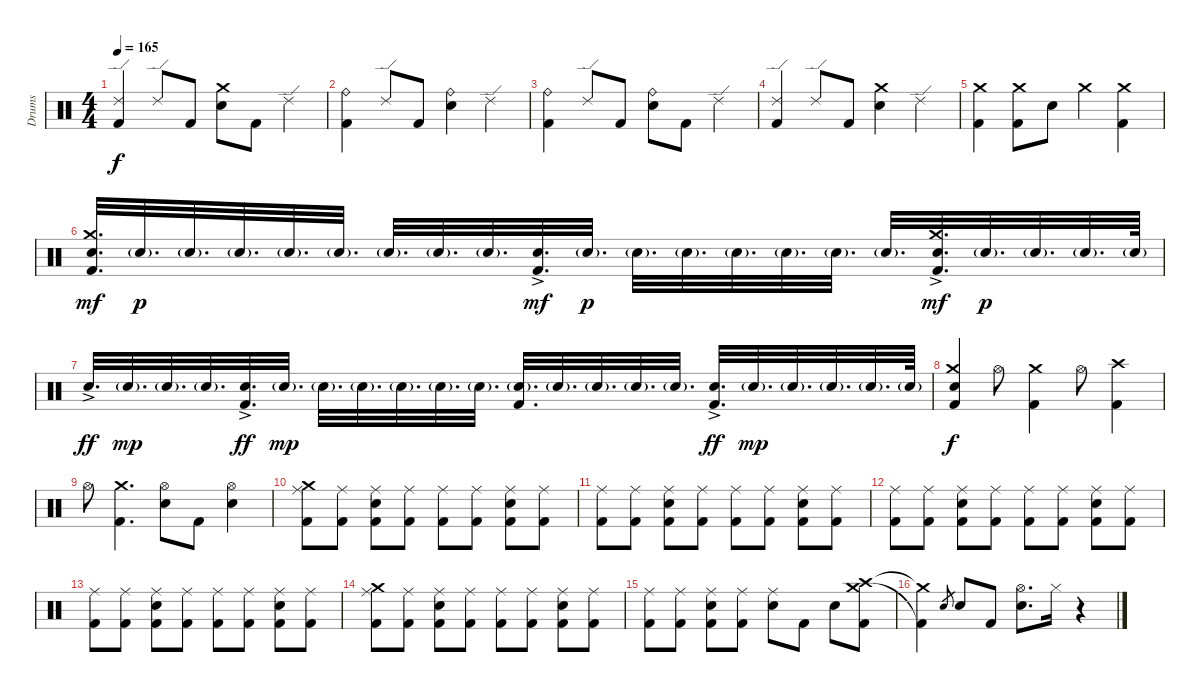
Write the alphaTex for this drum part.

\track ("Drums" "Drums") {instrument percussion}
\staff {score}
\articulation defaults
\ts (4 4)
\tempo 165
\clef neutral
\ks c
("Ride (edge) 2" "Kick (hit) 2").4{dy f} "Ride (edge) 2".8 "Kick (hit) 2".8 ("Crash medium (hit)" "Electric Snare (hit)").8 "Kick (hit) 2".8 "Ride (edge) 2".4 |
("Ride (bell)" "Kick (hit) 2").4 "Ride (edge) 2".8 "Kick (hit) 2".8 ("Ride (bell)" "Electric Snare (hit)").4 "Ride (edge) 2".4 |
("Ride (bell)" "Kick (hit) 2").4 "Ride (edge) 2".8 "Kick (hit) 2".8 ("Ride (bell)" "Electric Snare (hit)").8 "Kick (hit) 2".8 "Ride (edge) 2".4 |
("Ride (edge) 2" "Kick (hit) 2").4 "Ride (edge) 2".8 "Kick (hit) 2".8 ("Crash medium (hit)" "Electric Snare (hit)").4 "Ride (edge) 2".4 |
("Crash medium (hit)" "Kick (hit) 2").4 ("Crash medium (hit)" "Kick (hit) 2").8 "Electric Snare (hit)".8 "Crash medium (hit)".4 ("Crash medium (hit)" "Kick (hit) 2").4 |
("Crash medium (hit)" "Electric Snare (hit)" "Kick (hit) 2").32{d dy mf} "Electric Snare (hit)"{g}.32{d dy p} "Electric Snare (hit)"{g}.32{d} "Electric Snare (hit)"{g}.32{d} "Electric Snare (hit)"{g}.32{d} "Electric Snare (hit)"{g}.32{d} "Electric Snare (hit)"{g}.32{d} "Electric Snare (hit)"{g}.32{d} "Electric Snare (hit)"{g}.32{d} ("Electric Snare (hit)"{ac} "Kick (hit) 2").32{d dy mf} "Electric Snare (hit)"{g}.32{d dy p} "Electric Snare (hit)"{g}.32{d} "Electric Snare (hit)"{g}.32{d} "Electric Snare (hit)"{g}.32{d} "Electric Snare (hit)"{g}.32{d} "Electric Snare (hit)"{g}.32{d} "Electric Snare (hit)"{g}.32{d} ("Crash medium (hit)" "Electric Snare (hit)"{ac} "Kick (hit) 2").32{d dy mf} "Electric Snare (hit)"{g}.32{d dy p} "Electric Snare (hit)"{g}.32{d} "Electric Snare (hit)"{g}.32{d} "Electric Snare (hit)"{g}.64 |
"Electric Snare (hit)"{ac}.32{d dy ff} "Electric Snare (hit)"{g}.32{d dy mp} "Electric Snare (hit)"{g}.32{d} "Electric Snare (hit)"{g}.32{d} ("Electric Snare (hit)"{ac} "Kick (hit) 2").32{d dy ff} "Electric Snare (hit)"{g}.32{d dy mp} "Electric Snare (hit)"{g}.32{d} "Electric Snare (hit)"{g}.32{d} "Electric Snare (hit)"{g}.32{d} "Electric Snare (hit)"{g}.32{d} "Electric Snare (hit)"{g}.32{d} ("Electric Snare (hit)"{g} "Kick (hit) 2").32{d} "Electric Snare (hit)"{g}.32{d} "Electric Snare (hit)"{g}.32{d} "Electric Snare (hit)"{g}.32{d} "Electric Snare (hit)"{g}.32{d} ("Electric Snare (hit)"{ac} "Kick (hit) 2").32{d dy ff} "Electric Snare (hit)"{g}.32{d dy mp} "Electric Snare (hit)"{g}.32{d} "Electric Snare (hit)"{g}.32{d} "Electric Snare (hit)"{g}.32{d} "Electric Snare (hit)"{g}.64 |
("Crash medium (hit)" "Electric Snare (hit)" "Kick (hit) 2").4{dy f} "Hi-Hat (open)".8 ("Crash medium (hit)" "Kick (hit) 2").4 "Hi-Hat (open)".8 ("Crash high (hit)" "Kick (hit) 2").4 |
"Hi-Hat (open)".8 ("Crash medium (hit)" "Kick (hit) 2").4{d} ("Hi-Hat (open)" "Electric Snare (hit)").8 "Kick (hit) 2".8 ("Hi-Hat (open)" "Electric Snare (hit)").4 |
("Crash medium (hit)" "Ride (middle)" "Kick (hit) 2").8 ("Ride (middle)" "Kick (hit) 2").8 ("Ride (middle)" "Electric Snare (hit)" "Kick (hit) 2").8 ("Ride (middle)" "Kick (hit) 2").8 ("Ride (middle)" "Kick (hit) 2").8 ("Ride (middle)" "Kick (hit) 2").8 ("Ride (middle)" "Electric Snare (hit)" "Kick (hit) 2").8 ("Ride (middle)" "Kick (hit) 2").8 |
("Ride (middle)" "Kick (hit) 2").8 ("Ride (middle)" "Kick (hit) 2").8 ("Ride (middle)" "Electric Snare (hit)" "Kick (hit) 2").8 ("Ride (middle)" "Kick (hit) 2").8 ("Ride (middle)" "Kick (hit) 2").8 ("Ride (middle)" "Kick (hit) 2").8 ("Ride (middle)" "Electric Snare (hit)" "Kick (hit) 2").8 ("Ride (middle)" "Kick (hit) 2").8 |
("Ride (middle)" "Kick (hit) 2").8 ("Ride (middle)" "Kick (hit) 2").8 ("Ride (middle)" "Electric Snare (hit)" "Kick (hit) 2").8 ("Ride (middle)" "Kick (hit) 2").8 ("Ride (middle)" "Kick (hit) 2").8 ("Ride (middle)" "Kick (hit) 2").8 ("Ride (middle)" "Electric Snare (hit)" "Kick (hit) 2").8 ("Ride (middle)" "Kick (hit) 2").8 |
("Ride (middle)" "Kick (hit) 2").8 ("Ride (middle)" "Kick (hit) 2").8 ("Ride (middle)" "Electric Snare (hit)" "Kick (hit) 2").8 ("Ride (middle)" "Kick (hit) 2").8 ("Ride (middle)" "Kick (hit) 2").8 ("Ride (middle)" "Kick (hit) 2").8 ("Ride (middle)" "Electric Snare (hit)" "Kick (hit) 2").8 ("Ride (middle)" "Kick (hit) 2").8 |
("Crash medium (hit)" "Ride (middle)" "Kick (hit) 2").8 ("Ride (middle)" "Kick (hit) 2").8 ("Ride (middle)" "Electric Snare (hit)" "Kick (hit) 2").8 ("Ride (middle)" "Kick (hit) 2").8 ("Ride (middle)" "Kick (hit) 2").8 ("Ride (middle)" "Kick (hit) 2").8 ("Ride (middle)" "Electric Snare (hit)" "Kick (hit) 2").8 ("Ride (middle)" "Kick (hit) 2").8 |
("Ride (middle)" "Kick (hit) 2").8 ("Ride (middle)" "Kick (hit) 2").8 ("Ride (middle)" "Electric Snare (hit)" "Kick (hit) 2").8 ("Ride (middle)" "Kick (hit) 2").8 ("Ride (middle)" "Electric Snare (hit)").8 "Kick (hit) 2".8 "Electric Snare (hit)".8 ("Crash high (hit)" "Crash medium (hit)" "Kick (hit) 2").8 |
("Crash medium (hit)"{t} "Kick (hit) 2"{t}).4 "Electric Snare (hit)".8{gr} "Electric Snare (hit)".8 "Kick (hit) 2".8 ("Hi-Hat (open)" "Electric Snare (hit)").8{d} "Hi-Hat (closed)".16 r.4
